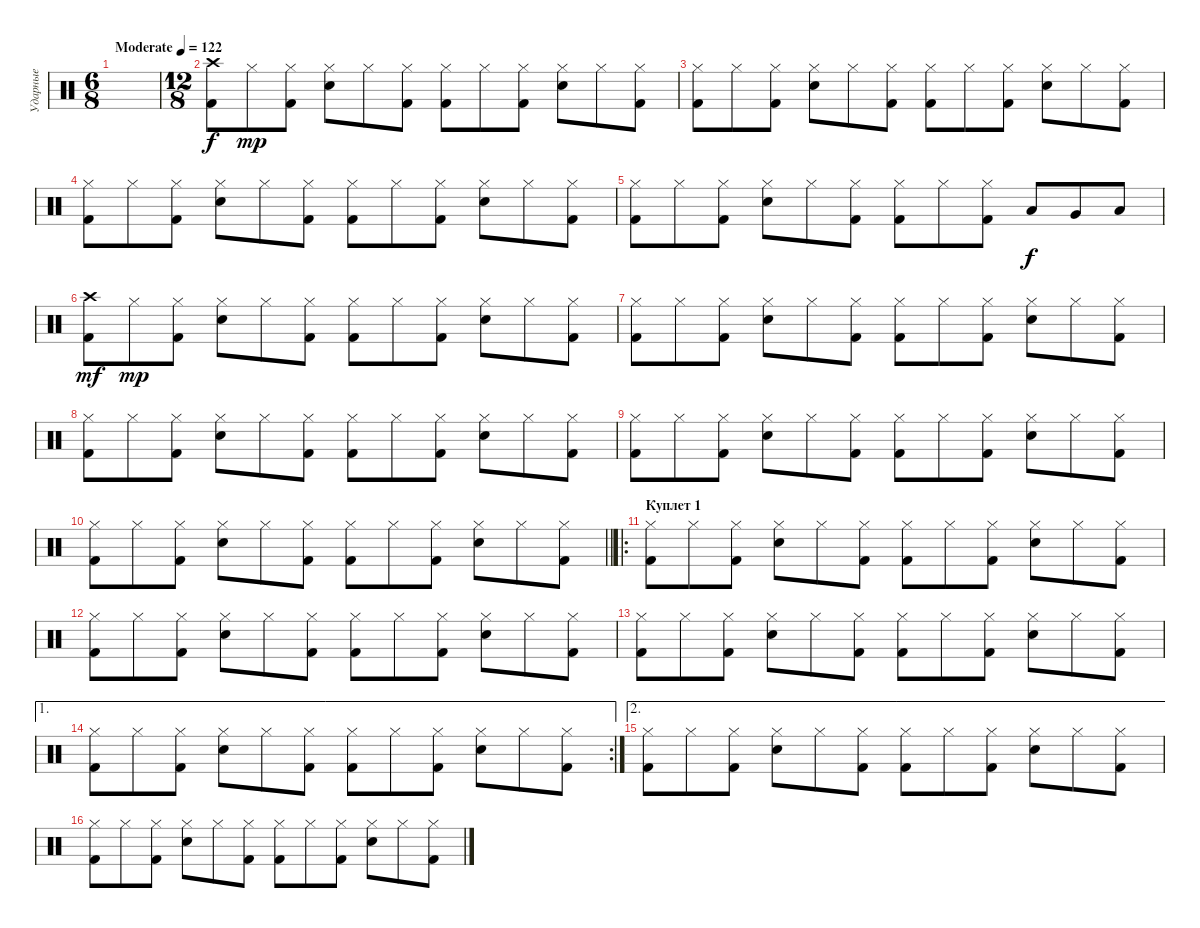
\track ("Ударные" "Ударные") {instrument percussion}
\staff {score}
\articulation defaults
\ts (6 8)
\tempo (122 "Moderate")
\clef neutral
\ks c
|
\ts (12 8)
("Crash high (hit)" "Kick (hit) 2").8 "Hi-Hat (closed)".8{dy mp} ("Hi-Hat (closed)" "Kick (hit) 2").8 ("Hi-Hat (closed)" "Electric Snare (hit)").8 "Hi-Hat (closed)".8 ("Hi-Hat (closed)" "Kick (hit) 2").8 ("Hi-Hat (closed)" "Kick (hit) 2").8 "Hi-Hat (closed)".8 ("Hi-Hat (closed)" "Kick (hit) 2").8 ("Hi-Hat (closed)" "Electric Snare (hit)").8 "Hi-Hat (closed)".8 ("Hi-Hat (closed)" "Kick (hit) 2").8 |
("Hi-Hat (closed)" "Kick (hit) 2").8 "Hi-Hat (closed)".8 ("Hi-Hat (closed)" "Kick (hit) 2").8 ("Hi-Hat (closed)" "Electric Snare (hit)").8 "Hi-Hat (closed)".8 ("Hi-Hat (closed)" "Kick (hit) 2").8 ("Hi-Hat (closed)" "Kick (hit) 2").8 "Hi-Hat (closed)".8 ("Hi-Hat (closed)" "Kick (hit) 2").8 ("Hi-Hat (closed)" "Electric Snare (hit)").8 "Hi-Hat (closed)".8 ("Hi-Hat (closed)" "Kick (hit) 2").8 |
("Hi-Hat (closed)" "Kick (hit) 2").8 "Hi-Hat (closed)".8 ("Hi-Hat (closed)" "Kick (hit) 2").8 ("Hi-Hat (closed)" "Electric Snare (hit)").8 "Hi-Hat (closed)".8 ("Hi-Hat (closed)" "Kick (hit) 2").8 ("Hi-Hat (closed)" "Kick (hit) 2").8 "Hi-Hat (closed)".8 ("Hi-Hat (closed)" "Kick (hit) 2").8 ("Hi-Hat (closed)" "Electric Snare (hit)").8 "Hi-Hat (closed)".8 ("Hi-Hat (closed)" "Kick (hit) 2").8 |
("Hi-Hat (closed)" "Kick (hit) 2").8 "Hi-Hat (closed)".8 ("Hi-Hat (closed)" "Kick (hit) 2").8 ("Hi-Hat (closed)" "Electric Snare (hit)").8 "Hi-Hat (closed)".8 ("Hi-Hat (closed)" "Kick (hit) 2").8 ("Hi-Hat (closed)" "Kick (hit) 2").8 "Hi-Hat (closed)".8 ("Hi-Hat (closed)" "Kick (hit) 2").8 "Low Tom (hit)".8{dy f} "Very Low Tom (hit)".8 "Low Floor Tom (hit)".8 |
("Crash high (hit)" "Kick (hit) 2").8{dy mf} "Hi-Hat (closed)".8{dy mp} ("Hi-Hat (closed)" "Kick (hit) 2").8 ("Hi-Hat (closed)" "Electric Snare (hit)").8 "Hi-Hat (closed)".8 ("Hi-Hat (closed)" "Kick (hit) 2").8 ("Hi-Hat (closed)" "Kick (hit) 2").8 "Hi-Hat (closed)".8 ("Hi-Hat (closed)" "Kick (hit) 2").8 ("Hi-Hat (closed)" "Electric Snare (hit)").8 "Hi-Hat (closed)".8 ("Hi-Hat (closed)" "Kick (hit) 2").8 |
("Hi-Hat (closed)" "Kick (hit) 2").8 "Hi-Hat (closed)".8 ("Hi-Hat (closed)" "Kick (hit) 2").8 ("Hi-Hat (closed)" "Electric Snare (hit)").8 "Hi-Hat (closed)".8 ("Hi-Hat (closed)" "Kick (hit) 2").8 ("Hi-Hat (closed)" "Kick (hit) 2").8 "Hi-Hat (closed)".8 ("Hi-Hat (closed)" "Kick (hit) 2").8 ("Hi-Hat (closed)" "Electric Snare (hit)").8 "Hi-Hat (closed)".8 ("Hi-Hat (closed)" "Kick (hit) 2").8 |
("Hi-Hat (closed)" "Kick (hit) 2").8 "Hi-Hat (closed)".8 ("Hi-Hat (closed)" "Kick (hit) 2").8 ("Hi-Hat (closed)" "Electric Snare (hit)").8 "Hi-Hat (closed)".8 ("Hi-Hat (closed)" "Kick (hit) 2").8 ("Hi-Hat (closed)" "Kick (hit) 2").8 "Hi-Hat (closed)".8 ("Hi-Hat (closed)" "Kick (hit) 2").8 ("Hi-Hat (closed)" "Electric Snare (hit)").8 "Hi-Hat (closed)".8 ("Hi-Hat (closed)" "Kick (hit) 2").8 |
("Hi-Hat (closed)" "Kick (hit) 2").8 "Hi-Hat (closed)".8 ("Hi-Hat (closed)" "Kick (hit) 2").8 ("Hi-Hat (closed)" "Electric Snare (hit)").8 "Hi-Hat (closed)".8 ("Hi-Hat (closed)" "Kick (hit) 2").8 ("Hi-Hat (closed)" "Kick (hit) 2").8 "Hi-Hat (closed)".8 ("Hi-Hat (closed)" "Kick (hit) 2").8 ("Hi-Hat (closed)" "Electric Snare (hit)").8 "Hi-Hat (closed)".8 ("Hi-Hat (closed)" "Kick (hit) 2").8 |
\barLineRight lightlight
("Hi-Hat (closed)" "Kick (hit) 2").8 "Hi-Hat (closed)".8 ("Hi-Hat (closed)" "Kick (hit) 2").8 ("Hi-Hat (closed)" "Electric Snare (hit)").8 "Hi-Hat (closed)".8 ("Hi-Hat (closed)" "Kick (hit) 2").8 ("Hi-Hat (closed)" "Kick (hit) 2").8 "Hi-Hat (closed)".8 ("Hi-Hat (closed)" "Kick (hit) 2").8 ("Hi-Hat (closed)" "Electric Snare (hit)").8 "Hi-Hat (closed)".8 ("Hi-Hat (closed)" "Kick (hit) 2").8 |
\ro
\section ("" "Куплет 1")
("Hi-Hat (closed)" "Kick (hit) 2").8 "Hi-Hat (closed)".8 ("Hi-Hat (closed)" "Kick (hit) 2").8 ("Hi-Hat (closed)" "Electric Snare (hit)").8 "Hi-Hat (closed)".8 ("Hi-Hat (closed)" "Kick (hit) 2").8 ("Hi-Hat (closed)" "Kick (hit) 2").8 "Hi-Hat (closed)".8 ("Hi-Hat (closed)" "Kick (hit) 2").8 ("Hi-Hat (closed)" "Electric Snare (hit)").8 "Hi-Hat (closed)".8 ("Hi-Hat (closed)" "Kick (hit) 2").8 |
("Hi-Hat (closed)" "Kick (hit) 2").8 "Hi-Hat (closed)".8 ("Hi-Hat (closed)" "Kick (hit) 2").8 ("Hi-Hat (closed)" "Electric Snare (hit)").8 "Hi-Hat (closed)".8 ("Hi-Hat (closed)" "Kick (hit) 2").8 ("Hi-Hat (closed)" "Kick (hit) 2").8 "Hi-Hat (closed)".8 ("Hi-Hat (closed)" "Kick (hit) 2").8 ("Hi-Hat (closed)" "Electric Snare (hit)").8 "Hi-Hat (closed)".8 ("Hi-Hat (closed)" "Kick (hit) 2").8 |
("Hi-Hat (closed)" "Kick (hit) 2").8 "Hi-Hat (closed)".8 ("Hi-Hat (closed)" "Kick (hit) 2").8 ("Hi-Hat (closed)" "Electric Snare (hit)").8 "Hi-Hat (closed)".8 ("Hi-Hat (closed)" "Kick (hit) 2").8 ("Hi-Hat (closed)" "Kick (hit) 2").8 "Hi-Hat (closed)".8 ("Hi-Hat (closed)" "Kick (hit) 2").8 ("Hi-Hat (closed)" "Electric Snare (hit)").8 "Hi-Hat (closed)".8 ("Hi-Hat (closed)" "Kick (hit) 2").8 |
\ae 1
\rc 2
("Hi-Hat (closed)" "Kick (hit) 2").8 "Hi-Hat (closed)".8 ("Hi-Hat (closed)" "Kick (hit) 2").8 ("Hi-Hat (closed)" "Electric Snare (hit)").8 "Hi-Hat (closed)".8 ("Hi-Hat (closed)" "Kick (hit) 2").8 ("Hi-Hat (closed)" "Kick (hit) 2").8 "Hi-Hat (closed)".8 ("Hi-Hat (closed)" "Kick (hit) 2").8 ("Hi-Hat (closed)" "Electric Snare (hit)").8 "Hi-Hat (closed)".8 ("Hi-Hat (closed)" "Kick (hit) 2").8 |
\ae 2
("Hi-Hat (closed)" "Kick (hit) 2").8 "Hi-Hat (closed)".8 ("Hi-Hat (closed)" "Kick (hit) 2").8 ("Hi-Hat (closed)" "Electric Snare (hit)").8 "Hi-Hat (closed)".8 ("Hi-Hat (closed)" "Kick (hit) 2").8 ("Hi-Hat (closed)" "Kick (hit) 2").8 "Hi-Hat (closed)".8 ("Hi-Hat (closed)" "Kick (hit) 2").8 ("Hi-Hat (closed)" "Electric Snare (hit)").8 "Hi-Hat (closed)".8 ("Hi-Hat (closed)" "Kick (hit) 2").8 |
("Hi-Hat (closed)" "Kick (hit) 2").8 "Hi-Hat (closed)".8 ("Hi-Hat (closed)" "Kick (hit) 2").8 ("Hi-Hat (closed)" "Electric Snare (hit)").8 "Hi-Hat (closed)".8 ("Hi-Hat (closed)" "Kick (hit) 2").8 ("Hi-Hat (closed)" "Kick (hit) 2").8 "Hi-Hat (closed)".8 ("Hi-Hat (closed)" "Kick (hit) 2").8 ("Hi-Hat (closed)" "Electric Snare (hit)").8 "Hi-Hat (closed)".8 ("Hi-Hat (closed)" "Kick (hit) 2").8
